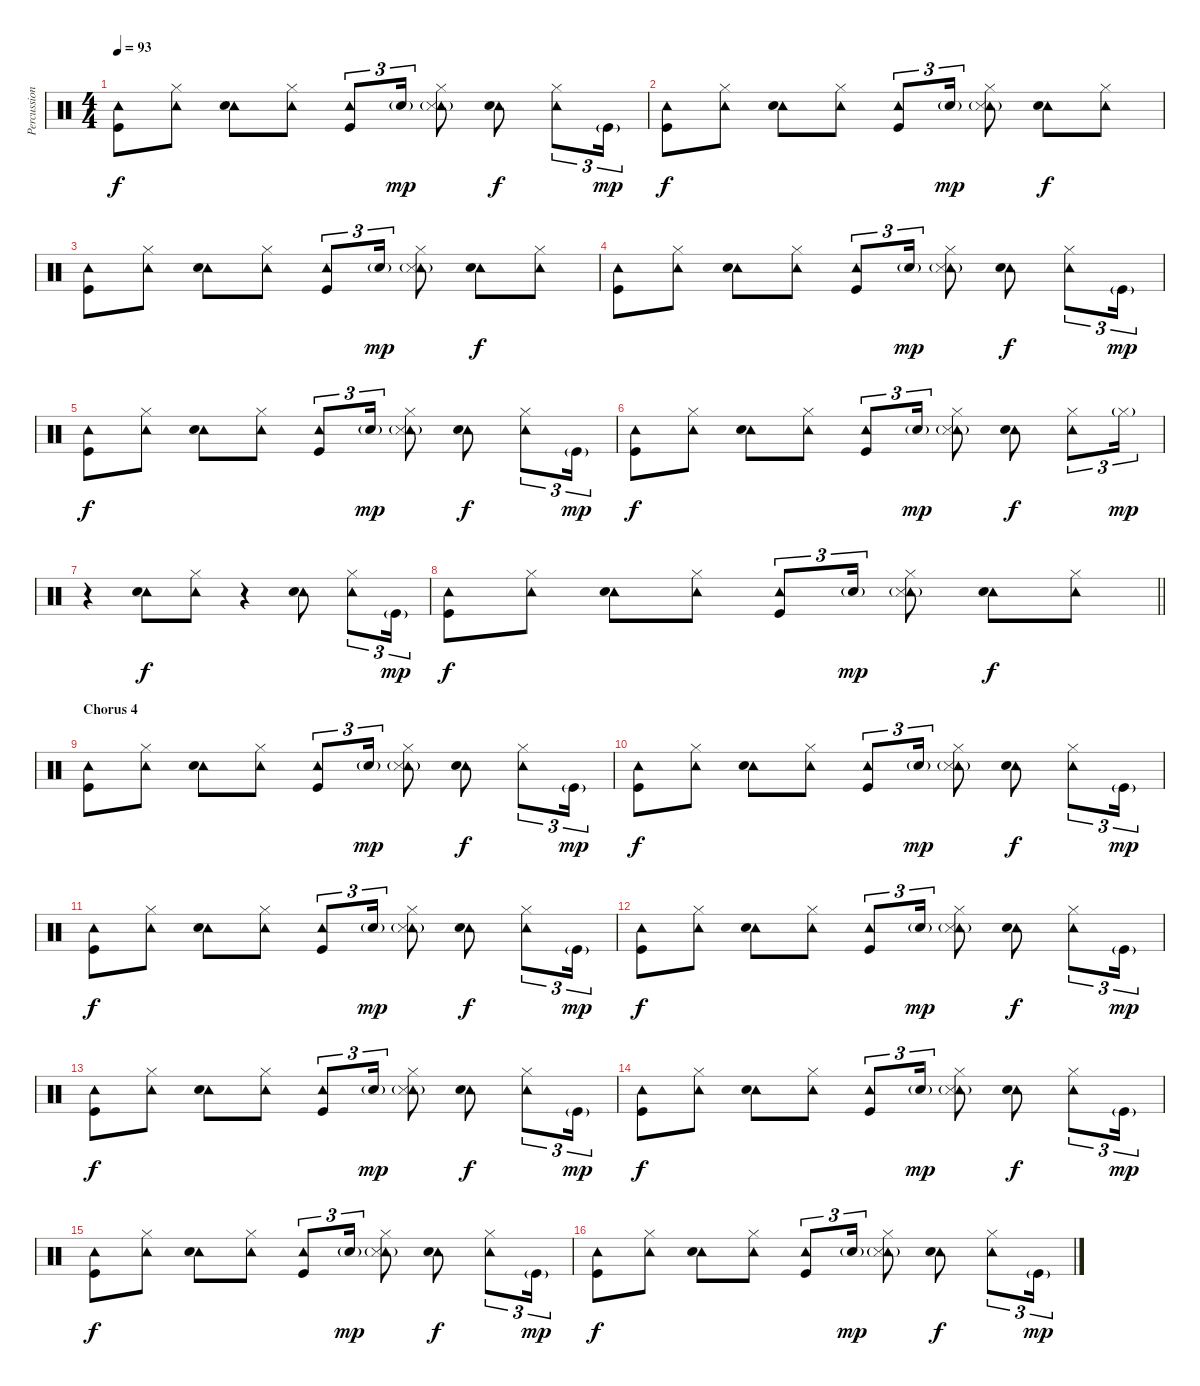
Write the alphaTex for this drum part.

\track ("Percussion" "Percussion") {instrument percussion}
\staff {score}
\articulation defaults
\ts (4 4)
\tempo 93
\clef neutral
\ks c
("Tambourine (hit)" "Kick (hit)").8{dy f} ("Tambourine (hit)" "Hi-Hat (closed)").8 ("Tambourine (hit)" "Electric Snare (hit)").8 ("Tambourine (hit)" "Hi-Hat (closed)").8 ("Tambourine (hit)" "Kick (hit)").8{tu (3 2)} "Electric Snare (hit)"{g}.16{tu (3 2) dy mp} ("Tambourine (hit)" "Hi-Hat (closed)" "Snare (side stick) 3"{g}).8 ("Tambourine (hit)" "Electric Snare (hit)").8{dy f} ("Tambourine (hit)" "Hi-Hat (closed)").8{tu (3 2)} "Kick (hit)"{g}.16{tu (3 2) dy mp} |
("Tambourine (hit)" "Kick (hit)").8{dy f} ("Tambourine (hit)" "Hi-Hat (closed)").8 ("Tambourine (hit)" "Electric Snare (hit)").8 ("Tambourine (hit)" "Hi-Hat (closed)").8 ("Tambourine (hit)" "Kick (hit)").8{tu (3 2)} "Electric Snare (hit)"{g}.16{tu (3 2) dy mp} ("Tambourine (hit)" "Hi-Hat (closed)" "Snare (side stick) 3"{g}).8 ("Tambourine (hit)" "Electric Snare (hit)").8{dy f} ("Tambourine (hit)" "Hi-Hat (closed)").8 |
("Tambourine (hit)" "Kick (hit)").8 ("Tambourine (hit)" "Hi-Hat (closed)").8 ("Tambourine (hit)" "Electric Snare (hit)").8 ("Tambourine (hit)" "Hi-Hat (closed)").8 ("Tambourine (hit)" "Kick (hit)").8{tu (3 2)} "Electric Snare (hit)"{g}.16{tu (3 2) dy mp} ("Tambourine (hit)" "Hi-Hat (closed)" "Snare (side stick) 3"{g}).8 ("Tambourine (hit)" "Electric Snare (hit)").8{dy f} ("Tambourine (hit)" "Hi-Hat (closed)").8 |
("Tambourine (hit)" "Kick (hit)").8 ("Tambourine (hit)" "Hi-Hat (closed)").8 ("Tambourine (hit)" "Electric Snare (hit)").8 ("Tambourine (hit)" "Hi-Hat (closed)").8 ("Tambourine (hit)" "Kick (hit)").8{tu (3 2)} "Electric Snare (hit)"{g}.16{tu (3 2) dy mp} ("Tambourine (hit)" "Hi-Hat (closed)" "Snare (side stick) 3"{g}).8 ("Tambourine (hit)" "Electric Snare (hit)").8{dy f} ("Tambourine (hit)" "Hi-Hat (closed)").8{tu (3 2)} "Kick (hit)"{g}.16{tu (3 2) dy mp} |
("Tambourine (hit)" "Kick (hit)").8{dy f} ("Tambourine (hit)" "Hi-Hat (closed)").8 ("Tambourine (hit)" "Electric Snare (hit)").8 ("Tambourine (hit)" "Hi-Hat (closed)").8 ("Tambourine (hit)" "Kick (hit)").8{tu (3 2)} "Electric Snare (hit)"{g}.16{tu (3 2) dy mp} ("Tambourine (hit)" "Hi-Hat (closed)" "Snare (side stick) 3"{g}).8 ("Tambourine (hit)" "Electric Snare (hit)").8{dy f} ("Tambourine (hit)" "Hi-Hat (closed)").8{tu (3 2)} "Kick (hit)"{g}.16{tu (3 2) dy mp} |
("Tambourine (hit)" "Kick (hit)").8{dy f} ("Tambourine (hit)" "Hi-Hat (closed)").8 ("Tambourine (hit)" "Electric Snare (hit)").8 ("Tambourine (hit)" "Hi-Hat (closed)").8 ("Tambourine (hit)" "Kick (hit)").8{tu (3 2)} "Electric Snare (hit)"{g}.16{tu (3 2) dy mp} ("Tambourine (hit)" "Hi-Hat (closed)" "Snare (side stick) 3"{g}).8 ("Tambourine (hit)" "Electric Snare (hit)").8{dy f} ("Tambourine (hit)" "Hi-Hat (closed)").8{tu (3 2)} "Hi-Hat (closed)"{g}.16{tu (3 2) dy mp} |
r.4 ("Tambourine (hit)" "Electric Snare (hit)").8{dy f} ("Tambourine (hit)" "Hi-Hat (closed)").8 r.4 ("Tambourine (hit)" "Electric Snare (hit)").8 ("Tambourine (hit)" "Hi-Hat (closed)").8{tu (3 2)} "Kick (hit)"{g}.16{tu (3 2) dy mp} |
\barLineRight lightlight
("Tambourine (hit)" "Kick (hit)").8{dy f} ("Tambourine (hit)" "Hi-Hat (closed)").8 ("Tambourine (hit)" "Electric Snare (hit)").8 ("Tambourine (hit)" "Hi-Hat (closed)").8 ("Tambourine (hit)" "Kick (hit)").8{tu (3 2)} "Electric Snare (hit)"{g}.16{tu (3 2) dy mp} ("Tambourine (hit)" "Hi-Hat (closed)" "Snare (side stick) 3"{g}).8 ("Tambourine (hit)" "Electric Snare (hit)").8{dy f} ("Tambourine (hit)" "Hi-Hat (closed)").8 |
\section ("" "Chorus 4")
("Tambourine (hit)" "Kick (hit)").8 ("Tambourine (hit)" "Hi-Hat (closed)").8 ("Tambourine (hit)" "Electric Snare (hit)").8 ("Tambourine (hit)" "Hi-Hat (closed)").8 ("Tambourine (hit)" "Kick (hit)").8{tu (3 2)} "Electric Snare (hit)"{g}.16{tu (3 2) dy mp} ("Tambourine (hit)" "Hi-Hat (closed)" "Snare (side stick) 3"{g}).8 ("Tambourine (hit)" "Electric Snare (hit)").8{dy f} ("Tambourine (hit)" "Hi-Hat (closed)").8{tu (3 2)} "Kick (hit)"{g}.16{tu (3 2) dy mp} |
("Tambourine (hit)" "Kick (hit)").8{dy f} ("Tambourine (hit)" "Hi-Hat (closed)").8 ("Tambourine (hit)" "Electric Snare (hit)").8 ("Tambourine (hit)" "Hi-Hat (closed)").8 ("Tambourine (hit)" "Kick (hit)").8{tu (3 2)} "Electric Snare (hit)"{g}.16{tu (3 2) dy mp} ("Tambourine (hit)" "Hi-Hat (closed)" "Snare (side stick) 3"{g}).8 ("Tambourine (hit)" "Electric Snare (hit)").8{dy f} ("Tambourine (hit)" "Hi-Hat (closed)").8{tu (3 2)} "Kick (hit)"{g}.16{tu (3 2) dy mp} |
("Tambourine (hit)" "Kick (hit)").8{dy f} ("Tambourine (hit)" "Hi-Hat (closed)").8 ("Tambourine (hit)" "Electric Snare (hit)").8 ("Tambourine (hit)" "Hi-Hat (closed)").8 ("Tambourine (hit)" "Kick (hit)").8{tu (3 2)} "Electric Snare (hit)"{g}.16{tu (3 2) dy mp} ("Tambourine (hit)" "Hi-Hat (closed)" "Snare (side stick) 3"{g}).8 ("Tambourine (hit)" "Electric Snare (hit)").8{dy f} ("Tambourine (hit)" "Hi-Hat (closed)").8{tu (3 2)} "Kick (hit)"{g}.16{tu (3 2) dy mp} |
("Tambourine (hit)" "Kick (hit)").8{dy f} ("Tambourine (hit)" "Hi-Hat (closed)").8 ("Tambourine (hit)" "Electric Snare (hit)").8 ("Tambourine (hit)" "Hi-Hat (closed)").8 ("Tambourine (hit)" "Kick (hit)").8{tu (3 2)} "Electric Snare (hit)"{g}.16{tu (3 2) dy mp} ("Tambourine (hit)" "Hi-Hat (closed)" "Snare (side stick) 3"{g}).8 ("Tambourine (hit)" "Electric Snare (hit)").8{dy f} ("Tambourine (hit)" "Hi-Hat (closed)").8{tu (3 2)} "Kick (hit)"{g}.16{tu (3 2) dy mp} |
("Tambourine (hit)" "Kick (hit)").8{dy f} ("Tambourine (hit)" "Hi-Hat (closed)").8 ("Tambourine (hit)" "Electric Snare (hit)").8 ("Tambourine (hit)" "Hi-Hat (closed)").8 ("Tambourine (hit)" "Kick (hit)").8{tu (3 2)} "Electric Snare (hit)"{g}.16{tu (3 2) dy mp} ("Tambourine (hit)" "Hi-Hat (closed)" "Snare (side stick) 3"{g}).8 ("Tambourine (hit)" "Electric Snare (hit)").8{dy f} ("Tambourine (hit)" "Hi-Hat (closed)").8{tu (3 2)} "Kick (hit)"{g}.16{tu (3 2) dy mp} |
("Tambourine (hit)" "Kick (hit)").8{dy f} ("Tambourine (hit)" "Hi-Hat (closed)").8 ("Tambourine (hit)" "Electric Snare (hit)").8 ("Tambourine (hit)" "Hi-Hat (closed)").8 ("Tambourine (hit)" "Kick (hit)").8{tu (3 2)} "Electric Snare (hit)"{g}.16{tu (3 2) dy mp} ("Tambourine (hit)" "Hi-Hat (closed)" "Snare (side stick) 3"{g}).8 ("Tambourine (hit)" "Electric Snare (hit)").8{dy f} ("Tambourine (hit)" "Hi-Hat (closed)").8{tu (3 2)} "Kick (hit)"{g}.16{tu (3 2) dy mp} |
("Tambourine (hit)" "Kick (hit)").8{dy f} ("Tambourine (hit)" "Hi-Hat (closed)").8 ("Tambourine (hit)" "Electric Snare (hit)").8 ("Tambourine (hit)" "Hi-Hat (closed)").8 ("Tambourine (hit)" "Kick (hit)").8{tu (3 2)} "Electric Snare (hit)"{g}.16{tu (3 2) dy mp} ("Tambourine (hit)" "Hi-Hat (closed)" "Snare (side stick) 3"{g}).8 ("Tambourine (hit)" "Electric Snare (hit)").8{dy f} ("Tambourine (hit)" "Hi-Hat (closed)").8{tu (3 2)} "Kick (hit)"{g}.16{tu (3 2) dy mp} |
("Tambourine (hit)" "Kick (hit)").8{dy f} ("Tambourine (hit)" "Hi-Hat (closed)").8 ("Tambourine (hit)" "Electric Snare (hit)").8 ("Tambourine (hit)" "Hi-Hat (closed)").8 ("Tambourine (hit)" "Kick (hit)").8{tu (3 2)} "Electric Snare (hit)"{g}.16{tu (3 2) dy mp} ("Tambourine (hit)" "Hi-Hat (closed)" "Snare (side stick) 3"{g}).8 ("Tambourine (hit)" "Electric Snare (hit)").8{dy f} ("Tambourine (hit)" "Hi-Hat (closed)").8{tu (3 2)} "Kick (hit)"{g}.16{tu (3 2) dy mp}
